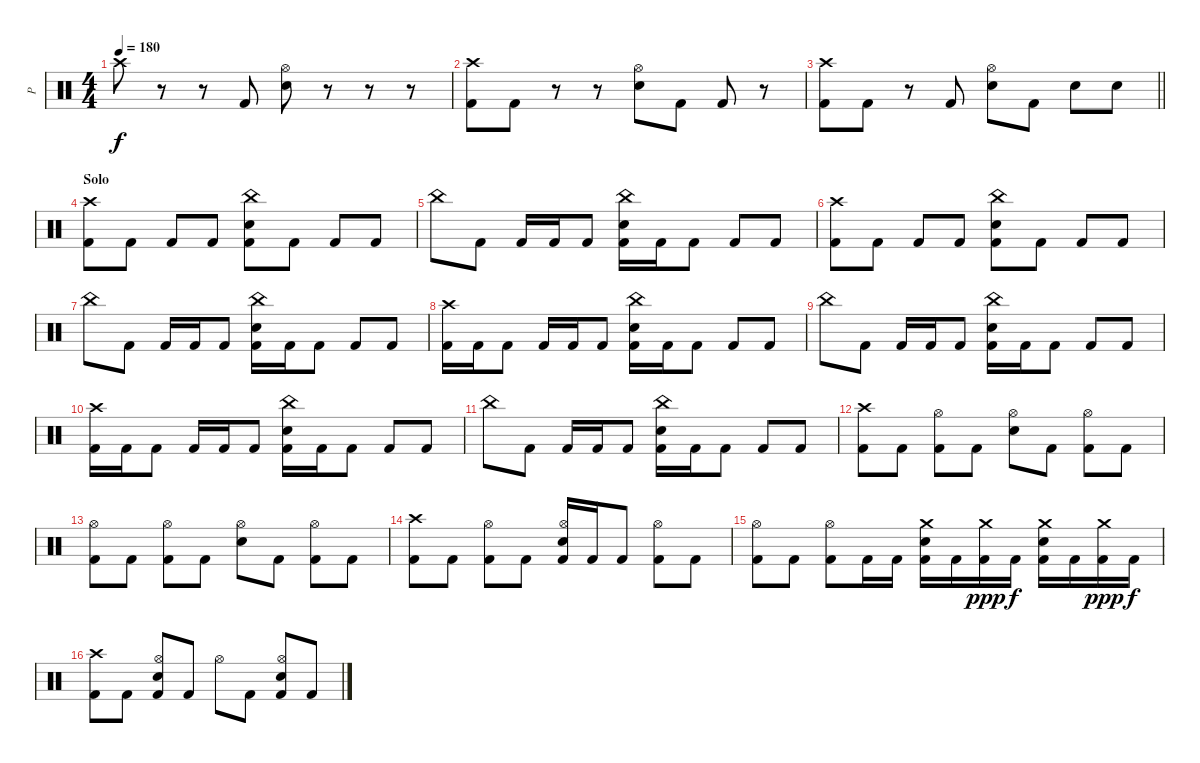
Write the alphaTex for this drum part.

\track ("P" "P") {instrument percussion}
\staff {score}
\articulation defaults
\ts (4 4)
\tempo 180
\clef neutral
\ks c "Crash high (hit)".8{dy f}
r.8 r.8 "Kick (hit) 2".8 ("Hi-Hat (open)" "Electric Snare (hit)").8 r.8 r.8 r.8 |
("Crash high (hit)" "Kick (hit) 2").8 "Kick (hit) 2".8 r.8 r.8 ("Hi-Hat (open)" "Electric Snare (hit)").8 "Kick (hit) 2".8 "Kick (hit) 2".8 r.8 |
\barLineRight lightlight
("Crash high (hit)" "Kick (hit) 2").8 "Kick (hit) 2".8 r.8 "Kick (hit) 2".8 ("Hi-Hat (open)" "Electric Snare (hit)").8 "Kick (hit) 2".8 "Electric Snare (hit)".8 "Electric Snare (hit)".8 |
\section ("" "Solo")
("Crash high (hit)" "Kick (hit) 2").8 "Kick (hit) 2".8 "Kick (hit) 2".8 "Kick (hit) 2".8 ("China (hit)" "Electric Snare (hit)" "Kick (hit) 2").8 "Kick (hit) 2".8 "Kick (hit) 2".8 "Kick (hit) 2".8 |
"China (hit)".8 "Kick (hit) 2".8 "Kick (hit) 2".16 "Kick (hit) 2".16 "Kick (hit) 2".8 ("China (hit)" "Electric Snare (hit)" "Kick (hit) 2").16 "Kick (hit) 2".16 "Kick (hit) 2".8 "Kick (hit) 2".8 "Kick (hit) 2".8 |
("Crash high (hit)" "Kick (hit) 2").8 "Kick (hit) 2".8 "Kick (hit) 2".8 "Kick (hit) 2".8 ("China (hit)" "Electric Snare (hit)" "Kick (hit) 2").8 "Kick (hit) 2".8 "Kick (hit) 2".8 "Kick (hit) 2".8 |
"China (hit)".8 "Kick (hit) 2".8 "Kick (hit) 2".16 "Kick (hit) 2".16 "Kick (hit) 2".8 ("China (hit)" "Electric Snare (hit)" "Kick (hit) 2").16 "Kick (hit) 2".16 "Kick (hit) 2".8 "Kick (hit) 2".8 "Kick (hit) 2".8 |
("Crash high (hit)" "Kick (hit) 2").16 "Kick (hit) 2".16 "Kick (hit) 2".8 "Kick (hit) 2".16 "Kick (hit) 2".16 "Kick (hit) 2".8 ("China (hit)" "Electric Snare (hit)" "Kick (hit) 2").16 "Kick (hit) 2".16 "Kick (hit) 2".8 "Kick (hit) 2".8 "Kick (hit) 2".8 |
"China (hit)".8 "Kick (hit) 2".8 "Kick (hit) 2".16 "Kick (hit) 2".16 "Kick (hit) 2".8 ("China (hit)" "Electric Snare (hit)" "Kick (hit) 2").16 "Kick (hit) 2".16 "Kick (hit) 2".8 "Kick (hit) 2".8 "Kick (hit) 2".8 |
("Crash high (hit)" "Kick (hit) 2").16 "Kick (hit) 2".16 "Kick (hit) 2".8 "Kick (hit) 2".16 "Kick (hit) 2".16 "Kick (hit) 2".8 ("China (hit)" "Electric Snare (hit)" "Kick (hit) 2").16 "Kick (hit) 2".16 "Kick (hit) 2".8 "Kick (hit) 2".8 "Kick (hit) 2".8 |
"China (hit)".8 "Kick (hit) 2".8 "Kick (hit) 2".16 "Kick (hit) 2".16 "Kick (hit) 2".8 ("China (hit)" "Electric Snare (hit)" "Kick (hit) 2").16 "Kick (hit) 2".16 "Kick (hit) 2".8 "Kick (hit) 2".8 "Kick (hit) 2".8 |
("Crash high (hit)" "Kick (hit) 2").8 "Kick (hit) 2".8 ("Hi-Hat (open)" "Kick (hit) 2").8 "Kick (hit) 2".8 ("Hi-Hat (open)" "Electric Snare (hit)").8 "Kick (hit) 2".8 ("Hi-Hat (open)" "Kick (hit) 2").8 "Kick (hit) 2".8 |
("Hi-Hat (open)" "Kick (hit) 2").8 "Kick (hit) 2".8 ("Hi-Hat (open)" "Kick (hit) 2").8 "Kick (hit) 2".8 ("Hi-Hat (open)" "Electric Snare (hit)").8 "Kick (hit) 2".8 ("Hi-Hat (open)" "Kick (hit) 2").8 "Kick (hit) 2".8 |
("Crash high (hit)" "Kick (hit) 2").8 "Kick (hit) 2".8 ("Hi-Hat (open)" "Kick (hit) 2").8 "Kick (hit) 2".8 ("Hi-Hat (open)" "Electric Snare (hit)" "Kick (hit) 2").16 "Kick (hit) 2".16 "Kick (hit) 2".8 ("Hi-Hat (open)" "Kick (hit) 2").8 "Kick (hit) 2".8 |
("Hi-Hat (open)" "Kick (hit) 2").8 "Kick (hit) 2".8 ("Hi-Hat (open)" "Kick (hit) 2").8 "Kick (hit) 2".16 "Kick (hit) 2".16 ("Crash medium (hit)" "Electric Snare (hit)" "Kick (hit) 2").16 "Kick (hit) 2".16 ("Crash medium (hit)" "Kick (hit) 2").16{dy ppp} "Kick (hit) 2".16{dy f} ("Crash medium (hit)" "Electric Snare (hit)" "Kick (hit) 2").16 "Kick (hit) 2".16 ("Crash medium (hit)" "Kick (hit) 2").16{dy ppp} "Kick (hit) 2".16{dy f} |
("Crash high (hit)" "Kick (hit) 2").8 "Kick (hit) 2".8 ("Hi-Hat (open)" "Electric Snare (hit)" "Kick (hit) 2").8 "Kick (hit) 2".8 "Hi-Hat (open)".8 "Kick (hit) 2".8 ("Hi-Hat (open)" "Electric Snare (hit)" "Kick (hit) 2").8 "Kick (hit) 2".8
